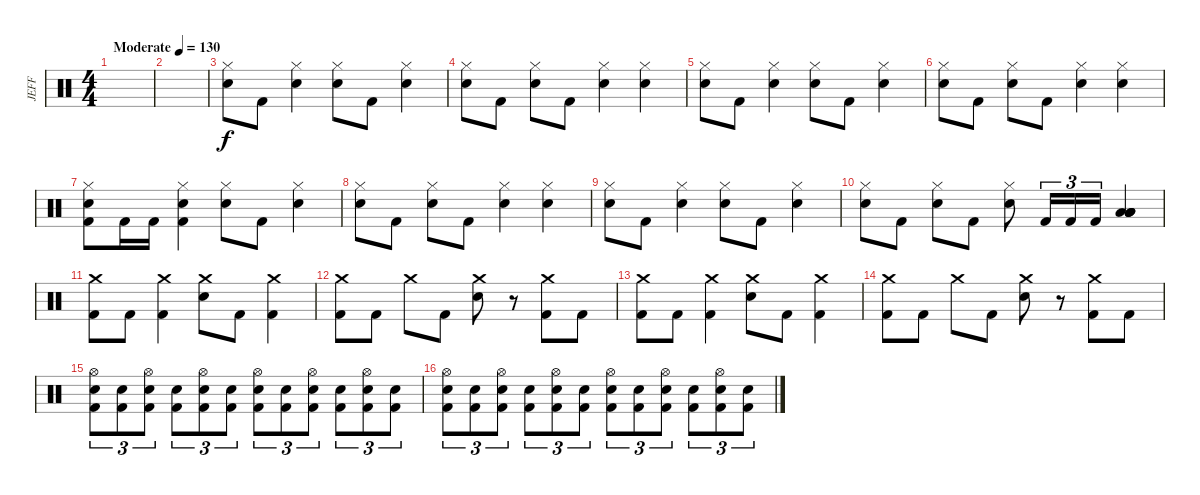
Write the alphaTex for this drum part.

\track ("JEFF" "JEFF") {instrument percussion}
\staff {score}
\articulation defaults
\ts (4 4)
\tempo (130 "Moderate")
\clef neutral
\ks c
|
|
("Hi-Hat (closed)" "Electric Snare (hit)").8 "Kick (hit) 2".8 ("Hi-Hat (closed)" "Electric Snare (hit)").4 ("Hi-Hat (closed)" "Electric Snare (hit)").8 "Kick (hit) 2".8 ("Hi-Hat (closed)" "Electric Snare (hit)").4 |
("Hi-Hat (closed)" "Electric Snare (hit)").8 "Kick (hit) 2".8 ("Hi-Hat (closed)" "Electric Snare (hit)").8 "Kick (hit) 2".8 ("Hi-Hat (closed)" "Electric Snare (hit)").4 ("Hi-Hat (closed)" "Electric Snare (hit)").4 |
("Hi-Hat (closed)" "Electric Snare (hit)").8 "Kick (hit) 2".8 ("Hi-Hat (closed)" "Electric Snare (hit)").4 ("Hi-Hat (closed)" "Electric Snare (hit)").8 "Kick (hit) 2".8 ("Hi-Hat (closed)" "Electric Snare (hit)").4 |
("Hi-Hat (closed)" "Electric Snare (hit)").8 "Kick (hit) 2".8 ("Hi-Hat (closed)" "Electric Snare (hit)").8 "Kick (hit) 2".8 ("Hi-Hat (closed)" "Electric Snare (hit)").4 ("Hi-Hat (closed)" "Electric Snare (hit)").4 |
("Hi-Hat (closed)" "Electric Snare (hit)" "Kick (hit) 2").8 "Kick (hit) 2".16 "Kick (hit) 2".16 ("Hi-Hat (closed)" "Electric Snare (hit)" "Kick (hit) 2").4 ("Hi-Hat (closed)" "Electric Snare (hit)").8 "Kick (hit) 2".8 ("Hi-Hat (closed)" "Electric Snare (hit)").4 |
("Hi-Hat (closed)" "Electric Snare (hit)").8 "Kick (hit) 2".8 ("Hi-Hat (closed)" "Electric Snare (hit)").8 "Kick (hit) 2".8 ("Hi-Hat (closed)" "Electric Snare (hit)").4 ("Hi-Hat (closed)" "Electric Snare (hit)").4 |
("Hi-Hat (closed)" "Electric Snare (hit)").8 "Kick (hit) 2".8 ("Hi-Hat (closed)" "Electric Snare (hit)").4 ("Hi-Hat (closed)" "Electric Snare (hit)").8 "Kick (hit) 2".8 ("Hi-Hat (closed)" "Electric Snare (hit)").4 |
("Hi-Hat (closed)" "Electric Snare (hit)").8 "Kick (hit) 2".8 ("Hi-Hat (closed)" "Electric Snare (hit)").8 "Kick (hit) 2".8 ("Hi-Hat (closed)" "Electric Snare (hit)").8 "Kick (hit) 2".16{tu (3 2)} "Kick (hit) 2".16{tu (3 2)} "Kick (hit) 2".16{tu (3 2)} ("Low Floor Tom (hit)" "Low Floor Tom (hit)" "Low Floor Tom (hit)" "Low Floor Tom (hit)").4 |
("Crash medium (hit)" "Kick (hit) 2").8 "Kick (hit) 2".8 ("Crash medium (hit)" "Kick (hit) 2").4 ("Crash medium (hit)" "Electric Snare (hit)").8 "Kick (hit) 2".8 ("Crash medium (hit)" "Kick (hit) 2").4 |
("Crash medium (hit)" "Kick (hit) 2").8 "Kick (hit) 2".8 "Crash medium (hit)".8 "Kick (hit) 2".8 ("Crash medium (hit)" "Electric Snare (hit)").8 r.8 ("Crash medium (hit)" "Kick (hit) 2").8 "Kick (hit) 2".8 |
("Crash medium (hit)" "Kick (hit) 2").8 "Kick (hit) 2".8 ("Crash medium (hit)" "Kick (hit) 2").4 ("Crash medium (hit)" "Electric Snare (hit)").8 "Kick (hit) 2".8 ("Crash medium (hit)" "Kick (hit) 2").4 |
("Crash medium (hit)" "Kick (hit) 2").8 "Kick (hit) 2".8 "Crash medium (hit)".8 "Kick (hit) 2".8 ("Crash medium (hit)" "Electric Snare (hit)").8 r.8 ("Crash medium (hit)" "Kick (hit) 2").8 "Kick (hit) 2".8 |
("Hi-Hat (open)" "Electric Snare (hit)" "Kick (hit) 2").8{tu (3 2)} ("Electric Snare (hit)" "Kick (hit) 2").8{tu (3 2)} ("Hi-Hat (open)" "Electric Snare (hit)" "Kick (hit) 2").8{tu (3 2)} ("Electric Snare (hit)" "Kick (hit) 2").8{tu (3 2)} ("Hi-Hat (open)" "Electric Snare (hit)" "Kick (hit) 2").8{tu (3 2)} ("Electric Snare (hit)" "Kick (hit) 2").8{tu (3 2)} ("Hi-Hat (open)" "Electric Snare (hit)" "Kick (hit) 2").8{tu (3 2)} ("Electric Snare (hit)" "Kick (hit) 2").8{tu (3 2)} ("Hi-Hat (open)" "Electric Snare (hit)" "Kick (hit) 2").8{tu (3 2)} ("Electric Snare (hit)" "Kick (hit) 2").8{tu (3 2)} ("Hi-Hat (open)" "Electric Snare (hit)" "Kick (hit) 2").8{tu (3 2)} ("Electric Snare (hit)" "Kick (hit) 2").8{tu (3 2)} |
("Hi-Hat (open)" "Electric Snare (hit)" "Kick (hit) 2").8{tu (3 2)} ("Electric Snare (hit)" "Kick (hit) 2").8{tu (3 2)} ("Hi-Hat (open)" "Electric Snare (hit)" "Kick (hit) 2").8{tu (3 2)} ("Electric Snare (hit)" "Kick (hit) 2").8{tu (3 2)} ("Hi-Hat (open)" "Electric Snare (hit)" "Kick (hit) 2").8{tu (3 2)} ("Electric Snare (hit)" "Kick (hit) 2").8{tu (3 2)} ("Hi-Hat (open)" "Electric Snare (hit)" "Kick (hit) 2").8{tu (3 2)} ("Electric Snare (hit)" "Kick (hit) 2").8{tu (3 2)} ("Hi-Hat (open)" "Electric Snare (hit)" "Kick (hit) 2").8{tu (3 2)} ("Electric Snare (hit)" "Kick (hit) 2").8{tu (3 2)} ("Hi-Hat (open)" "Electric Snare (hit)" "Kick (hit) 2").8{tu (3 2)} ("Electric Snare (hit)" "Kick (hit) 2").8{tu (3 2)}
